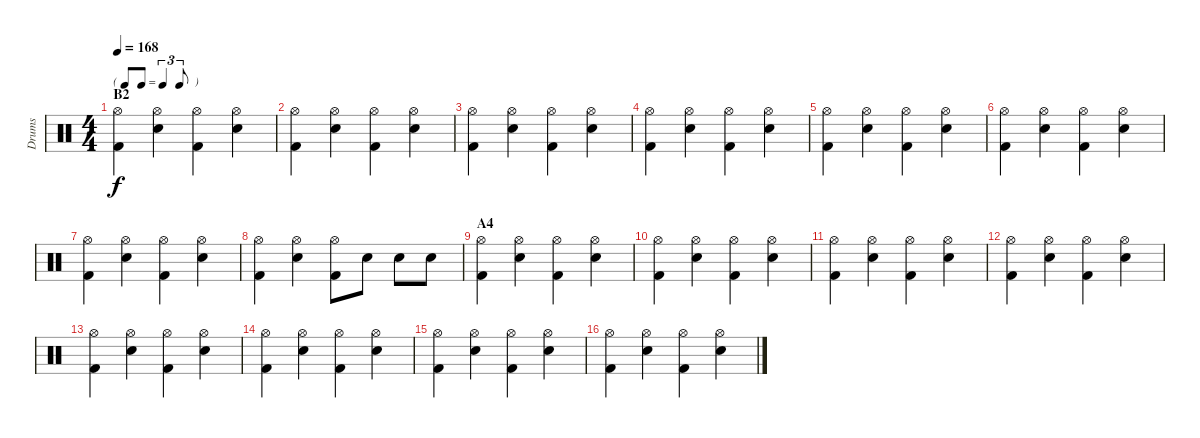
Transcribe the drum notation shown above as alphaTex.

\track ("Drums" "Drums") {instrument percussion}
\staff {score}
\articulation defaults
\ts (4 4)
\tf triplet8th
\section ("" "B2")
\tempo 168
\clef neutral
\ks c
("Hi-Hat (open)" "Kick (hit) 2").4{dy f} ("Hi-Hat (open)" "Snare (hit) 2").4 ("Hi-Hat (open)" "Kick (hit) 2").4 ("Hi-Hat (open)" "Snare (hit) 2").4 |
("Hi-Hat (open)" "Kick (hit) 2").4 ("Hi-Hat (open)" "Snare (hit) 2").4 ("Hi-Hat (open)" "Kick (hit) 2").4 ("Hi-Hat (open)" "Snare (hit) 2").4 |
("Hi-Hat (open)" "Kick (hit) 2").4 ("Hi-Hat (open)" "Snare (hit) 2").4 ("Hi-Hat (open)" "Kick (hit) 2").4 ("Hi-Hat (open)" "Snare (hit) 2").4 |
("Hi-Hat (open)" "Kick (hit) 2").4 ("Hi-Hat (open)" "Snare (hit) 2").4 ("Hi-Hat (open)" "Kick (hit) 2").4 ("Hi-Hat (open)" "Snare (hit) 2").4 |
("Hi-Hat (open)" "Kick (hit) 2").4 ("Hi-Hat (open)" "Snare (hit) 2").4 ("Hi-Hat (open)" "Kick (hit) 2").4 ("Hi-Hat (open)" "Snare (hit) 2").4 |
("Hi-Hat (open)" "Kick (hit) 2").4 ("Hi-Hat (open)" "Snare (hit) 2").4 ("Hi-Hat (open)" "Kick (hit) 2").4 ("Hi-Hat (open)" "Snare (hit) 2").4 |
("Hi-Hat (open)" "Kick (hit) 2").4 ("Hi-Hat (open)" "Snare (hit) 2").4 ("Hi-Hat (open)" "Kick (hit) 2").4 ("Hi-Hat (open)" "Snare (hit) 2").4 |
("Hi-Hat (open)" "Kick (hit) 2").4 ("Hi-Hat (open)" "Snare (hit) 2").4 ("Hi-Hat (open)" "Kick (hit) 2").8 "Snare (hit) 2".8 "Snare (hit) 2".8 "Snare (hit) 2".8 |
\section ("" "A4")
("Hi-Hat (open)" "Kick (hit) 2").4 ("Hi-Hat (open)" "Snare (hit) 2").4 ("Hi-Hat (open)" "Kick (hit) 2").4 ("Hi-Hat (open)" "Snare (hit) 2").4 |
("Hi-Hat (open)" "Kick (hit) 2").4 ("Hi-Hat (open)" "Snare (hit) 2").4 ("Hi-Hat (open)" "Kick (hit) 2").4 ("Hi-Hat (open)" "Snare (hit) 2").4 |
("Hi-Hat (open)" "Kick (hit) 2").4 ("Hi-Hat (open)" "Snare (hit) 2").4 ("Hi-Hat (open)" "Kick (hit) 2").4 ("Hi-Hat (open)" "Snare (hit) 2").4 |
("Hi-Hat (open)" "Kick (hit) 2").4 ("Hi-Hat (open)" "Snare (hit) 2").4 ("Hi-Hat (open)" "Kick (hit) 2").4 ("Hi-Hat (open)" "Snare (hit) 2").4 |
("Hi-Hat (open)" "Kick (hit) 2").4 ("Hi-Hat (open)" "Snare (hit) 2").4 ("Hi-Hat (open)" "Kick (hit) 2").4 ("Hi-Hat (open)" "Snare (hit) 2").4 |
("Hi-Hat (open)" "Kick (hit) 2").4 ("Hi-Hat (open)" "Snare (hit) 2").4 ("Hi-Hat (open)" "Kick (hit) 2").4 ("Hi-Hat (open)" "Snare (hit) 2").4 |
("Hi-Hat (open)" "Kick (hit) 2").4 ("Hi-Hat (open)" "Snare (hit) 2").4 ("Hi-Hat (open)" "Kick (hit) 2").4 ("Hi-Hat (open)" "Snare (hit) 2").4 |
("Hi-Hat (open)" "Kick (hit) 2").4 ("Hi-Hat (open)" "Snare (hit) 2").4 ("Hi-Hat (open)" "Kick (hit) 2").4 ("Hi-Hat (open)" "Snare (hit) 2").4
